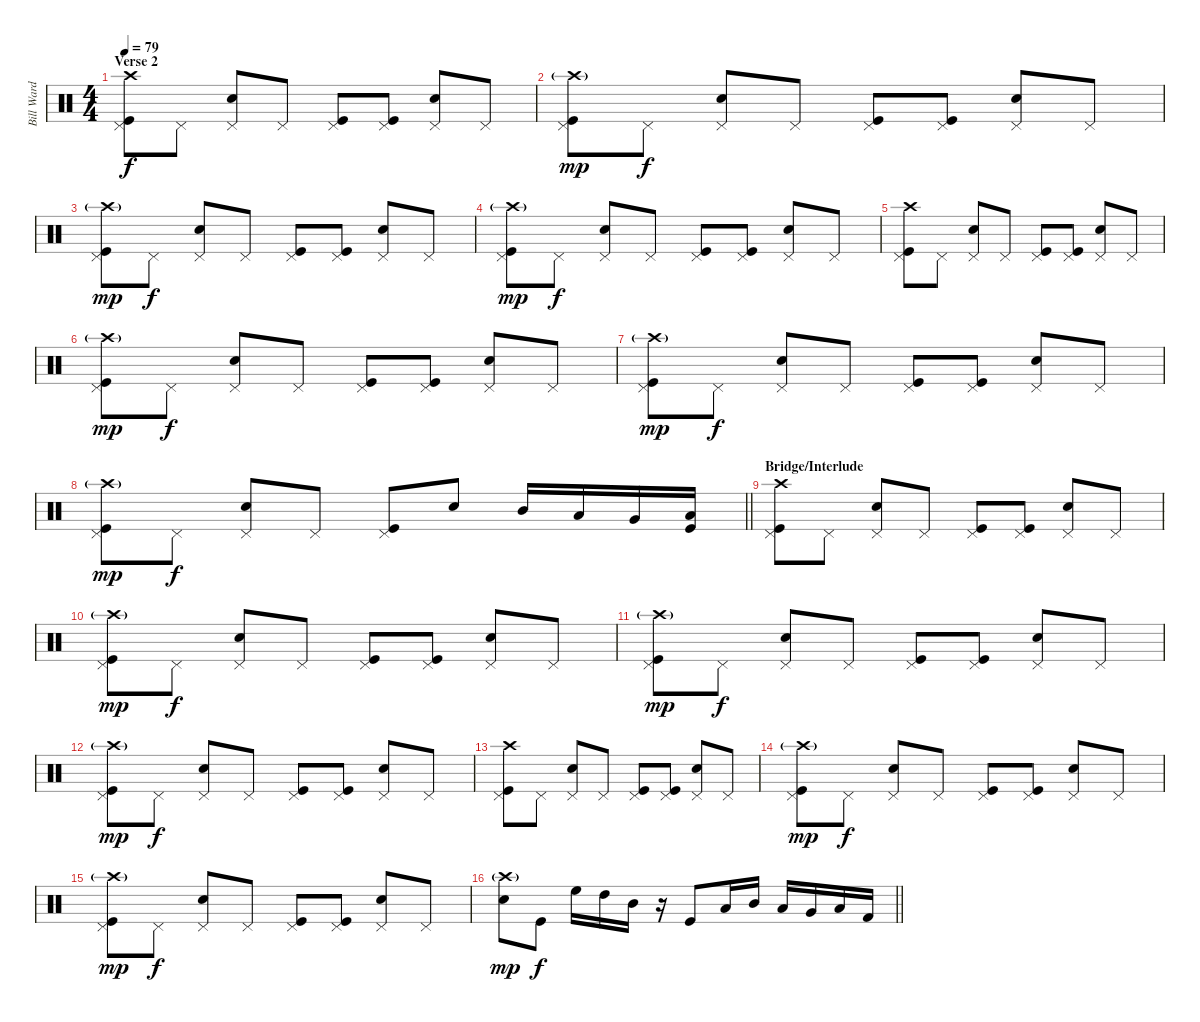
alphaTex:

\track ("Bill Ward" "Bill Ward") {instrument percussion}
\staff {score}
\articulation defaults
\ts (4 4)
\section ("" "Verse 2")
\tempo 79
\clef neutral
\ks c
("Crash high (hit)" "Pedal Hi-Hat (hit)" "Kick (hit)").8{dy f} "Pedal Hi-Hat (hit)".8 ("Pedal Hi-Hat (hit)" "Electric Snare (hit)").8 "Pedal Hi-Hat (hit)".8 ("Pedal Hi-Hat (hit)" "Kick (hit)").8 ("Pedal Hi-Hat (hit)" "Kick (hit)").8 ("Pedal Hi-Hat (hit)" "Electric Snare (hit)").8 "Pedal Hi-Hat (hit)".8 |
("Crash high (hit)"{g} "Pedal Hi-Hat (hit)" "Kick (hit)").8{dy mp} "Pedal Hi-Hat (hit)".8{dy f} ("Pedal Hi-Hat (hit)" "Electric Snare (hit)").8 "Pedal Hi-Hat (hit)".8 ("Pedal Hi-Hat (hit)" "Kick (hit)").8 ("Pedal Hi-Hat (hit)" "Kick (hit)").8 ("Pedal Hi-Hat (hit)" "Electric Snare (hit)").8 "Pedal Hi-Hat (hit)".8 |
("Crash high (hit)"{g} "Pedal Hi-Hat (hit)" "Kick (hit)").8{dy mp} "Pedal Hi-Hat (hit)".8{dy f} ("Pedal Hi-Hat (hit)" "Electric Snare (hit)").8 "Pedal Hi-Hat (hit)".8 ("Pedal Hi-Hat (hit)" "Kick (hit)").8 ("Pedal Hi-Hat (hit)" "Kick (hit)").8 ("Pedal Hi-Hat (hit)" "Electric Snare (hit)").8 "Pedal Hi-Hat (hit)".8 |
("Crash high (hit)"{g} "Pedal Hi-Hat (hit)" "Kick (hit)").8{dy mp} "Pedal Hi-Hat (hit)".8{dy f} ("Pedal Hi-Hat (hit)" "Electric Snare (hit)").8 "Pedal Hi-Hat (hit)".8 ("Pedal Hi-Hat (hit)" "Kick (hit)").8 ("Pedal Hi-Hat (hit)" "Kick (hit)").8 ("Pedal Hi-Hat (hit)" "Electric Snare (hit)").8 "Pedal Hi-Hat (hit)".8 |
("Crash high (hit)" "Pedal Hi-Hat (hit)" "Kick (hit)").8 "Pedal Hi-Hat (hit)".8 ("Pedal Hi-Hat (hit)" "Electric Snare (hit)").8 "Pedal Hi-Hat (hit)".8 ("Pedal Hi-Hat (hit)" "Kick (hit)").8 ("Pedal Hi-Hat (hit)" "Kick (hit)").8 ("Pedal Hi-Hat (hit)" "Electric Snare (hit)").8 "Pedal Hi-Hat (hit)".8 |
("Crash high (hit)"{g} "Pedal Hi-Hat (hit)" "Kick (hit)").8{dy mp} "Pedal Hi-Hat (hit)".8{dy f} ("Pedal Hi-Hat (hit)" "Electric Snare (hit)").8 "Pedal Hi-Hat (hit)".8 ("Pedal Hi-Hat (hit)" "Kick (hit)").8 ("Pedal Hi-Hat (hit)" "Kick (hit)").8 ("Pedal Hi-Hat (hit)" "Electric Snare (hit)").8 "Pedal Hi-Hat (hit)".8 |
("Crash high (hit)"{g} "Pedal Hi-Hat (hit)" "Kick (hit)").8{dy mp} "Pedal Hi-Hat (hit)".8{dy f} ("Pedal Hi-Hat (hit)" "Electric Snare (hit)").8 "Pedal Hi-Hat (hit)".8 ("Pedal Hi-Hat (hit)" "Kick (hit)").8 ("Pedal Hi-Hat (hit)" "Kick (hit)").8 ("Pedal Hi-Hat (hit)" "Electric Snare (hit)").8 "Pedal Hi-Hat (hit)".8 |
\barLineRight lightlight
("Crash high (hit)"{g} "Pedal Hi-Hat (hit)" "Kick (hit)").8{dy mp} "Pedal Hi-Hat (hit)".8{dy f} ("Pedal Hi-Hat (hit)" "Electric Snare (hit)").8 "Pedal Hi-Hat (hit)".8 ("Pedal Hi-Hat (hit)" "Kick (hit)").8 "Electric Snare (hit)".8 "Mid Tom (hit)".16 "Low Tom (hit)".16 "Very Low Tom (hit)".16 ("Low Floor Tom (hit)" "Kick (hit)").16 |
\section ("" "Bridge/Interlude")
("Crash high (hit)" "Pedal Hi-Hat (hit)" "Kick (hit)").8 "Pedal Hi-Hat (hit)".8 ("Pedal Hi-Hat (hit)" "Electric Snare (hit)").8 "Pedal Hi-Hat (hit)".8 ("Pedal Hi-Hat (hit)" "Kick (hit)").8 ("Pedal Hi-Hat (hit)" "Kick (hit)").8 ("Pedal Hi-Hat (hit)" "Electric Snare (hit)").8 "Pedal Hi-Hat (hit)".8 |
("Crash high (hit)"{g} "Pedal Hi-Hat (hit)" "Kick (hit)").8{dy mp} "Pedal Hi-Hat (hit)".8{dy f} ("Pedal Hi-Hat (hit)" "Electric Snare (hit)").8 "Pedal Hi-Hat (hit)".8 ("Pedal Hi-Hat (hit)" "Kick (hit)").8 ("Pedal Hi-Hat (hit)" "Kick (hit)").8 ("Pedal Hi-Hat (hit)" "Electric Snare (hit)").8 "Pedal Hi-Hat (hit)".8 |
("Crash high (hit)"{g} "Pedal Hi-Hat (hit)" "Kick (hit)").8{dy mp} "Pedal Hi-Hat (hit)".8{dy f} ("Pedal Hi-Hat (hit)" "Electric Snare (hit)").8 "Pedal Hi-Hat (hit)".8 ("Pedal Hi-Hat (hit)" "Kick (hit)").8 ("Pedal Hi-Hat (hit)" "Kick (hit)").8 ("Pedal Hi-Hat (hit)" "Electric Snare (hit)").8 "Pedal Hi-Hat (hit)".8 |
("Crash high (hit)"{g} "Pedal Hi-Hat (hit)" "Kick (hit)").8{dy mp} "Pedal Hi-Hat (hit)".8{dy f} ("Pedal Hi-Hat (hit)" "Electric Snare (hit)").8 "Pedal Hi-Hat (hit)".8 ("Pedal Hi-Hat (hit)" "Kick (hit)").8 ("Pedal Hi-Hat (hit)" "Kick (hit)").8 ("Pedal Hi-Hat (hit)" "Electric Snare (hit)").8 "Pedal Hi-Hat (hit)".8 |
("Crash high (hit)" "Pedal Hi-Hat (hit)" "Kick (hit)").8 "Pedal Hi-Hat (hit)".8 ("Pedal Hi-Hat (hit)" "Electric Snare (hit)").8 "Pedal Hi-Hat (hit)".8 ("Pedal Hi-Hat (hit)" "Kick (hit)").8 ("Pedal Hi-Hat (hit)" "Kick (hit)").8 ("Pedal Hi-Hat (hit)" "Electric Snare (hit)").8 "Pedal Hi-Hat (hit)".8 |
("Crash high (hit)"{g} "Pedal Hi-Hat (hit)" "Kick (hit)").8{dy mp} "Pedal Hi-Hat (hit)".8{dy f} ("Pedal Hi-Hat (hit)" "Electric Snare (hit)").8 "Pedal Hi-Hat (hit)".8 ("Pedal Hi-Hat (hit)" "Kick (hit)").8 ("Pedal Hi-Hat (hit)" "Kick (hit)").8 ("Pedal Hi-Hat (hit)" "Electric Snare (hit)").8 "Pedal Hi-Hat (hit)".8 |
("Crash high (hit)"{g} "Pedal Hi-Hat (hit)" "Kick (hit)").8{dy mp} "Pedal Hi-Hat (hit)".8{dy f} ("Pedal Hi-Hat (hit)" "Electric Snare (hit)").8 "Pedal Hi-Hat (hit)".8 ("Pedal Hi-Hat (hit)" "Kick (hit)").8 ("Pedal Hi-Hat (hit)" "Kick (hit)").8 ("Pedal Hi-Hat (hit)" "Electric Snare (hit)").8 "Pedal Hi-Hat (hit)".8 |
\barLineRight lightlight
("Crash high (hit)"{g} "Electric Snare (hit)").8{dy mp} "Kick (hit)".8{dy f} "High Floor Tom (hit)".16 "High Tom (hit)".16 "Mid Tom (hit)".16 r.16 "Kick (hit)".8 "Low Floor Tom (hit)".16 "Mid Tom (hit)".16 "Low Tom (hit)".16 "Very Low Tom (hit)".16 "Low Floor Tom (hit)".16 "Kick (hit) 2".16
